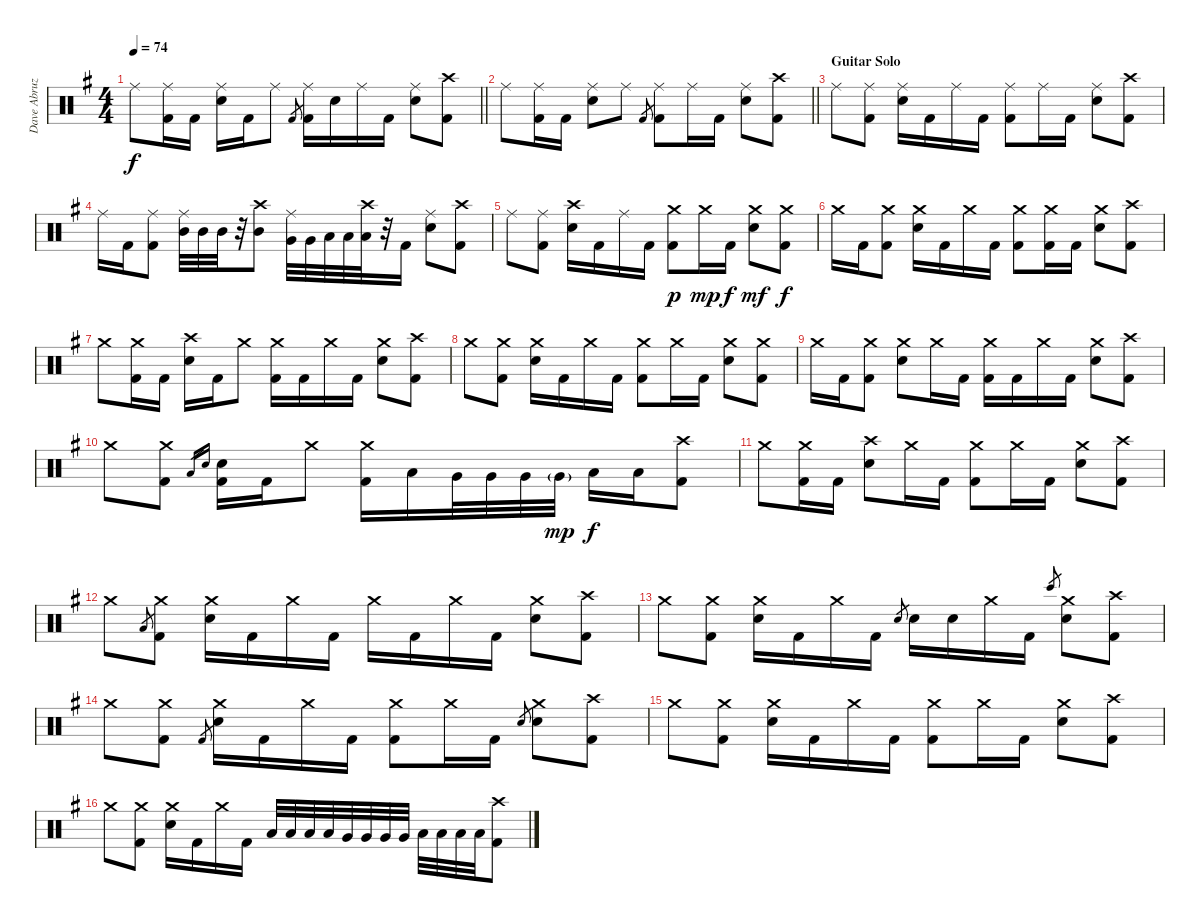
\track ("Dave Abruzzese" "Dave Abruz") {instrument percussion}
\staff {score}
\articulation defaults
\ts (4 4)
\tempo 74
\clef neutral
\barLineRight lightlight
\ks eminor "Ride (middle)".8{dy f}
("Ride (middle)" "Kick (hit) 2").16 "Kick (hit) 2".16 ("Ride (middle)" "Electric Snare (hit)").16 "Kick (hit) 2".16 "Ride (middle)".8 "Kick (hit) 2".8{gr} ("Ride (middle)" "Kick (hit) 2").16 "Electric Snare (hit)".16 "Ride (middle)".16 "Kick (hit) 2".16 ("Ride (middle)" "Electric Snare (hit)").8 ("Crash high (hit)" "Kick (hit) 2").8 |
\barLineRight lightlight "Ride (middle)".8
("Ride (middle)" "Kick (hit) 2").16 "Kick (hit) 2".16 ("Ride (middle)" "Electric Snare (hit)").8 "Ride (middle)".8 "Kick (hit) 2".8{gr} ("Ride (middle)" "Kick (hit) 2").8 "Ride (middle)".16 "Kick (hit) 2".16 ("Ride (middle)" "Electric Snare (hit)").8 ("Crash high (hit)" "Kick (hit) 2").8 |
\section ("" "Guitar Solo")
"Ride (middle)".8 ("Ride (middle)" "Kick (hit) 2").8 ("Ride (middle)" "Electric Snare (hit)").16 "Kick (hit) 2".16 "Ride (middle)".16 "Kick (hit) 2".16 ("Ride (middle)" "Kick (hit) 2").8 "Ride (middle)".16 "Kick (hit) 2".16 ("Ride (middle)" "Electric Snare (hit)").8 ("Crash high (hit)" "Kick (hit) 2").8 |
"Ride (middle)".16 "Kick (hit) 2".16 ("Ride (middle)" "Kick (hit) 2").8 ("Ride (middle)" "Mid Tom (hit)").32 "Mid Tom (hit)".32 "Mid Tom (hit)".32 r.32 ("Crash high (hit)" "Mid Tom (hit)").8 ("Ride (middle)" "Very Low Tom (hit)").32 "Very Low Tom (hit)".32 "Low Tom (hit)".32 "Low Tom (hit)".32 ("Crash high (hit)" "Low Tom (hit)").32 r.32 "Kick (hit) 2".16 ("Ride (middle)" "Electric Snare (hit)").8 ("Crash high (hit)" "Kick (hit) 2").8 |
"Ride (middle)".8 ("Ride (middle)" "Kick (hit) 2").8 ("Crash high (hit)" "Electric Snare (hit)").16 "Kick (hit) 2".16 "Ride (middle)".16 "Kick (hit) 2".16 ("Crash medium (hit)" "Kick (hit) 2").8{dy p} "Crash medium (hit)".16{dy mp} "Kick (hit) 2".16{dy f} ("Crash medium (hit)" "Electric Snare (hit)").8{dy mf} ("Crash medium (hit)" "Kick (hit) 2").8{dy f} |
"Crash medium (hit)".16 "Kick (hit) 2".16 ("Crash medium (hit)" "Kick (hit) 2").8 ("Crash medium (hit)" "Electric Snare (hit)").16 "Kick (hit) 2".16 "Crash medium (hit)".16 "Kick (hit) 2".16 ("Crash medium (hit)" "Kick (hit) 2").8 ("Crash medium (hit)" "Kick (hit) 2").16 "Kick (hit) 2".16 ("Crash medium (hit)" "Electric Snare (hit)").8 ("Crash high (hit)" "Kick (hit) 2").8 |
"Crash medium (hit)".8 ("Crash medium (hit)" "Kick (hit) 2").16 "Kick (hit) 2".16 ("Crash high (hit)" "Electric Snare (hit)").16 "Kick (hit) 2".16 "Crash medium (hit)".8 ("Crash medium (hit)" "Kick (hit) 2").16 "Kick (hit) 2".16 "Crash medium (hit)".16 "Kick (hit) 2".16 ("Crash medium (hit)" "Electric Snare (hit)").8 ("Crash high (hit)" "Kick (hit) 2").8 |
"Crash medium (hit)".8 ("Crash medium (hit)" "Kick (hit) 2").8 ("Crash medium (hit)" "Electric Snare (hit)").16 "Kick (hit) 2".16 "Crash medium (hit)".16 "Kick (hit) 2".16 ("Crash medium (hit)" "Kick (hit) 2").8 "Crash medium (hit)".16 "Kick (hit) 2".16 ("Crash medium (hit)" "Electric Snare (hit)").8 ("Crash medium (hit)" "Kick (hit) 2").8 |
"Crash medium (hit)".16 "Kick (hit) 2".16 ("Crash medium (hit)" "Kick (hit) 2").8 ("Crash medium (hit)" "Electric Snare (hit)").8 "Crash medium (hit)".16 "Kick (hit) 2".16 ("Crash medium (hit)" "Kick (hit) 2").16 "Kick (hit) 2".16 "Crash medium (hit)".16 "Kick (hit) 2".16 ("Crash medium (hit)" "Electric Snare (hit)").8 ("Crash high (hit)" "Kick (hit) 2").8 |
"Crash medium (hit)".8 ("Crash medium (hit)" "Kick (hit) 2").8 "Low Floor Tom (hit)".16{gr} "Electric Snare (hit)".16{gr} ("Electric Snare (hit)" "Kick (hit) 2").16 "Kick (hit) 2".16 "Crash medium (hit)".8 ("Crash medium (hit)" "Kick (hit) 2").16 "Low Floor Tom (hit)".16 "Very Low Tom (hit)".32 "Very Low Tom (hit)".32 "Very Low Tom (hit)".32 "Very Low Tom (hit)"{g}.32{dy mp} "Low Floor Tom (hit)".16{dy f} "Low Floor Tom (hit)".16 ("Crash high (hit)" "Kick (hit) 2").8 |
"Crash medium (hit)".8 ("Crash medium (hit)" "Kick (hit) 2").16 "Kick (hit) 2".16 ("Crash high (hit)" "Electric Snare (hit)").8 "Crash medium (hit)".16 "Kick (hit) 2".16 ("Crash medium (hit)" "Kick (hit) 2").8 "Crash medium (hit)".16 "Kick (hit) 2".16 ("Crash medium (hit)" "Electric Snare (hit)").8 ("Crash high (hit)" "Kick (hit) 2").8 |
"Crash medium (hit)".8 "Low Floor Tom (hit)".8{gr} ("Crash medium (hit)" "Kick (hit) 2").8 ("Crash medium (hit)" "Electric Snare (hit)").16 "Kick (hit) 2".16 "Crash medium (hit)".16 "Kick (hit) 2".16 "Crash medium (hit)".16 "Kick (hit) 2".16 "Crash medium (hit)".16 "Kick (hit) 2".16 ("Crash medium (hit)" "Electric Snare (hit)").8 ("Crash high (hit)" "Kick (hit) 2").8 |
"Crash medium (hit)".8 ("Crash medium (hit)" "Kick (hit) 2").8 ("Crash medium (hit)" "Electric Snare (hit)").16 "Kick (hit) 2".16 "Crash medium (hit)".16 "Kick (hit) 2".16 "Electric Snare (hit)".8{gr} "Electric Snare (hit)".16 "Electric Snare (hit)".16 "Crash medium (hit)".16 "Kick (hit) 2".16 "Bongo High (hit)".8{gr} ("Crash medium (hit)" "Electric Snare (hit)").8 ("Crash high (hit)" "Kick (hit) 2").8 |
"Crash medium (hit)".8 ("Crash medium (hit)" "Kick (hit) 2").8 "Kick (hit) 2".8{gr} ("Crash medium (hit)" "Electric Snare (hit)").16 "Kick (hit) 2".16 "Crash medium (hit)".16 "Kick (hit) 2".16 ("Crash medium (hit)" "Kick (hit) 2").8 "Crash medium (hit)".16 "Kick (hit) 2".16 "Electric Snare (hit)".8{gr} ("Crash medium (hit)" "Electric Snare (hit)").8 ("Crash high (hit)" "Kick (hit) 2").8 |
"Crash medium (hit)".8 ("Crash medium (hit)" "Kick (hit) 2").8 ("Crash medium (hit)" "Electric Snare (hit)").16 "Kick (hit) 2".16 "Crash medium (hit)".16 "Kick (hit) 2".16 ("Crash medium (hit)" "Kick (hit) 2").8 "Crash medium (hit)".16 "Kick (hit) 2".16 ("Crash medium (hit)" "Electric Snare (hit)").8 ("Crash high (hit)" "Kick (hit) 2").8 |
"Crash medium (hit)".8 ("Crash medium (hit)" "Kick (hit) 2").8 ("Crash medium (hit)" "Electric Snare (hit)").16 "Kick (hit) 2".16 "Crash medium (hit)".16 "Kick (hit) 2".16 "Low Tom (hit)".32 "Low Tom (hit)".32 "Low Tom (hit)".32 "Low Tom (hit)".32 "Very Low Tom (hit)".32 "Very Low Tom (hit)".32 "Very Low Tom (hit)".32 "Very Low Tom (hit)".32 "Low Floor Tom (hit)".32 "Low Floor Tom (hit)".32 "Low Floor Tom (hit)".32 "Low Floor Tom (hit)".32 ("Crash high (hit)" "Kick (hit) 2").8
